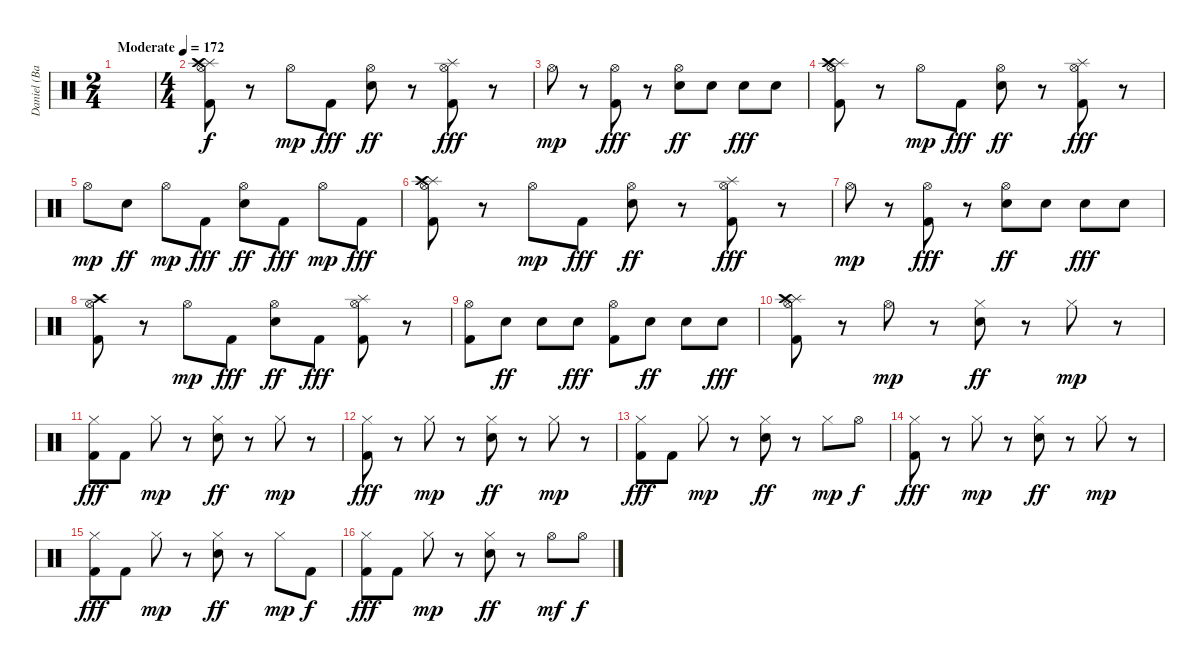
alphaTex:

\track ("Daniel (Bateria)" "Daniel (Ba") {instrument percussion}
\staff {score}
\articulation defaults
\ts (2 4)
\tempo (172 "Moderate")
\clef neutral
\ks c
|
\ts (4 4)
("Splash (hit)" "Hi-Hat (open)" "Crash high (hit)" "Kick (hit) 2").8 r.8 "Hi-Hat (open)".8{dy mp} "Kick (hit) 2".8{dy fff} ("Hi-Hat (open)" "Electric Snare (hit)").8{dy ff} r.8 ("Splash (hit)" "Hi-Hat (open)" "Kick (hit) 2").8{dy fff} r.8 |
"Hi-Hat (open)".8{dy mp} r.8 ("Hi-Hat (open)" "Kick (hit) 2").8{dy fff} r.8 ("Hi-Hat (open)" "Electric Snare (hit)").8{dy ff} "Electric Snare (hit)".8 "Electric Snare (hit)".8{dy fff} "Electric Snare (hit)".8 |
("Splash (hit)" "Hi-Hat (open)" "Crash high (hit)" "Kick (hit) 2").8 r.8 "Hi-Hat (open)".8{dy mp} "Kick (hit) 2".8{dy fff} ("Hi-Hat (open)" "Electric Snare (hit)").8{dy ff} r.8 ("Splash (hit)" "Hi-Hat (open)" "Kick (hit) 2").8{dy fff} r.8 |
"Hi-Hat (open)".8{dy mp} "Electric Snare (hit)".8{dy ff} "Hi-Hat (open)".8{dy mp} "Kick (hit) 2".8{dy fff} ("Hi-Hat (open)" "Electric Snare (hit)").8{dy ff} "Kick (hit) 2".8{dy fff} "Hi-Hat (open)".8{dy mp} "Kick (hit) 2".8{dy fff} |
("Splash (hit)" "Hi-Hat (open)" "Crash high (hit)" "Kick (hit) 2").8 r.8 "Hi-Hat (open)".8{dy mp} "Kick (hit) 2".8{dy fff} ("Hi-Hat (open)" "Electric Snare (hit)").8{dy ff} r.8 ("Splash (hit)" "Hi-Hat (open)" "Kick (hit) 2").8{dy fff} r.8 |
"Hi-Hat (open)".8{dy mp} r.8 ("Hi-Hat (open)" "Kick (hit) 2").8{dy fff} r.8 ("Hi-Hat (open)" "Electric Snare (hit)").8{dy ff} "Electric Snare (hit)".8 "Electric Snare (hit)".8{dy fff} "Electric Snare (hit)".8 |
("Hi-Hat (open)" "Crash high (hit)" "Kick (hit) 2").8 r.8 "Hi-Hat (open)".8{dy mp} "Kick (hit) 2".8{dy fff} ("Hi-Hat (open)" "Electric Snare (hit)").8{dy ff} "Kick (hit) 2".8{dy fff} ("Splash (hit)" "Hi-Hat (open)" "Kick (hit) 2").8 r.8 |
("Hi-Hat (open)" "Kick (hit) 2").8 "Electric Snare (hit)".8{dy ff} "Electric Snare (hit)".8 "Electric Snare (hit)".8{dy fff} ("Hi-Hat (open)" "Kick (hit) 2").8 "Electric Snare (hit)".8{dy ff} "Electric Snare (hit)".8 "Electric Snare (hit)".8{dy fff} |
("Splash (hit)" "Hi-Hat (open)" "Crash high (hit)" "Kick (hit) 2").8 r.8 "Hi-Hat (open)".8{dy mp} r.8 ("Hi-Hat (closed)" "Electric Snare (hit)").8{dy ff} r.8 "Hi-Hat (closed)".8{dy mp} r.8 |
("Hi-Hat (closed)" "Kick (hit) 2").8{dy fff} "Kick (hit) 2".8 "Hi-Hat (closed)".8{dy mp} r.8 ("Hi-Hat (closed)" "Electric Snare (hit)").8{dy ff} r.8 "Hi-Hat (closed)".8{dy mp} r.8 |
("Hi-Hat (closed)" "Kick (hit) 2").8{dy fff} r.8 "Hi-Hat (closed)".8{dy mp} r.8 ("Hi-Hat (closed)" "Electric Snare (hit)").8{dy ff} r.8 "Hi-Hat (closed)".8{dy mp} r.8 |
("Hi-Hat (closed)" "Kick (hit) 2").8{dy fff} "Kick (hit) 2".8 "Hi-Hat (closed)".8{dy mp} r.8 ("Hi-Hat (closed)" "Electric Snare (hit)").8{dy ff} r.8 "Hi-Hat (closed)".8{dy mp} "Hi-Hat (open)".8{dy f} |
("Hi-Hat (closed)" "Kick (hit) 2").8{dy fff} r.8 "Hi-Hat (closed)".8{dy mp} r.8 ("Hi-Hat (closed)" "Electric Snare (hit)").8{dy ff} r.8 "Hi-Hat (closed)".8{dy mp} r.8 |
("Hi-Hat (closed)" "Kick (hit) 2").8{dy fff} "Kick (hit) 2".8 "Hi-Hat (closed)".8{dy mp} r.8 ("Hi-Hat (closed)" "Electric Snare (hit)").8{dy ff} r.8 "Hi-Hat (closed)".8{dy mp} "Kick (hit) 2".8{dy f} |
("Hi-Hat (closed)" "Kick (hit) 2").8{dy fff} "Kick (hit) 2".8 "Hi-Hat (closed)".8{dy mp} r.8 ("Hi-Hat (closed)" "Electric Snare (hit)").8{dy ff} r.8 "Hi-Hat (open)".8{dy mf} "Hi-Hat (open)".8{dy f}
